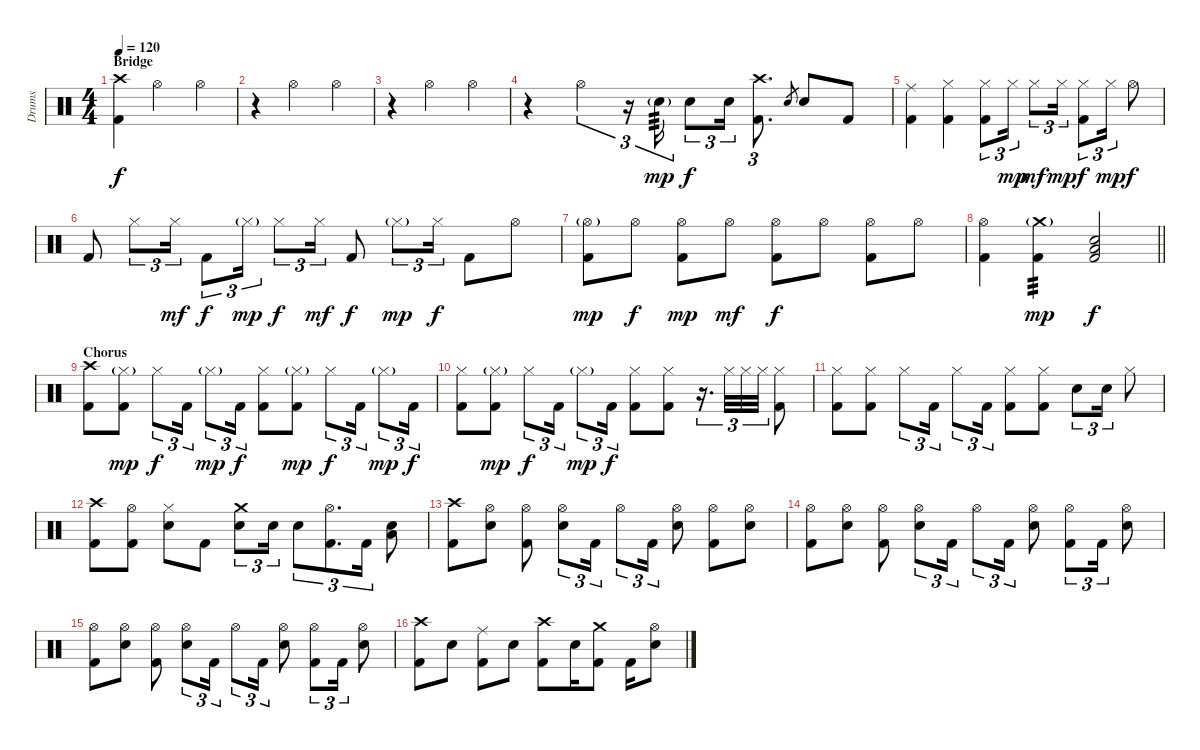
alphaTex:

\track ("Drums" "Drums") {instrument percussion}
\staff {score}
\articulation defaults
\ts (4 4)
\section ("" "Bridge")
\tempo 120
\clef neutral
\ks c
("Crash high (hit)" "Kick (hit) 2").4{dy f} "Hi-Hat (open)".2 "Hi-Hat (open)".4 |
r.4 "Hi-Hat (open)".2 "Hi-Hat (open)".4 |
r.4 "Hi-Hat (open)".2 "Hi-Hat (open)".4 |
r.4 "Hi-Hat (open)".4{tu (3 2)} r.16{tu (3 2)} "Electric Snare (hit)"{g}.16{tu (3 2) tp 3 dy mp} "Electric Snare (hit)".8{tu (3 2) dy f} "Electric Snare (hit)".16{tu (3 2)} ("Crash high (hit)" "Kick (hit) 2").8{d tu (3 2)} "Electric Snare (hit)".8{gr} "Electric Snare (hit)".8 "Kick (hit) 2".8 |
("Ride (middle)" "Kick (hit) 2").4 ("Hi-Hat (closed)" "Kick (hit) 2").4 ("Hi-Hat (closed)" "Kick (hit) 2").8{tu (3 2)} "Hi-Hat (closed)".16{tu (3 2) dy mp} "Hi-Hat (closed)".8{tu (3 2) dy mf} "Hi-Hat (closed)".16{tu (3 2) dy mp} ("Hi-Hat (closed)" "Kick (hit) 2").8{tu (3 2) dy f} "Hi-Hat (closed)".16{tu (3 2) dy mp} "Hi-Hat (open)".8{dy f} |
"Kick (hit) 2".8 "Hi-Hat (closed)".8{tu (3 2)} "Hi-Hat (closed)".16{tu (3 2) dy mf} "Kick (hit) 2".8{tu (3 2) dy f} "Hi-Hat (closed)"{g}.16{tu (3 2) dy mp} "Hi-Hat (closed)".8{tu (3 2) dy f} "Hi-Hat (closed)".16{tu (3 2) dy mf} "Kick (hit) 2".8{dy f} "Hi-Hat (closed)"{g}.8{tu (3 2) dy mp} "Hi-Hat (closed)".16{tu (3 2) dy f} "Kick (hit) 2".8 "Hi-Hat (open)".8 |
("Hi-Hat (open)"{g} "Kick (hit) 2").8{dy mp} "Hi-Hat (open)".8{dy f} ("Hi-Hat (open)" "Kick (hit) 2").8{dy mp} "Hi-Hat (open)".8{dy mf} ("Hi-Hat (open)" "Kick (hit) 2").8{dy f} "Hi-Hat (open)".8 ("Hi-Hat (open)" "Kick (hit) 2").8 "Hi-Hat (open)".8 |
\barLineRight lightlight
("Hi-Hat (open)" "Kick (hit) 2").4 ("Crash medium (hit)"{g} "Kick (hit) 2").4{tp 3 dy mp} ("Electric Snare (hit)" "Low Floor Tom (hit)" "Kick (hit) 2").2{dy f} |
\section ("" "Chorus")
("Crash high (hit)" "Kick (hit) 2").8 ("Hi-Hat (closed)"{g} "Kick (hit) 2").8{dy mp} "Hi-Hat (closed)".8{tu (3 2) dy f} "Kick (hit) 2".16{tu (3 2)} "Hi-Hat (closed)"{g}.8{tu (3 2) dy mp} "Kick (hit) 2".16{tu (3 2) dy f} ("Hi-Hat (closed)" "Kick (hit) 2").8 ("Hi-Hat (closed)"{g} "Kick (hit) 2").8{dy mp} "Hi-Hat (closed)".8{tu (3 2) dy f} "Kick (hit) 2".16{tu (3 2)} "Hi-Hat (closed)"{g}.8{tu (3 2) dy mp} "Kick (hit) 2".16{tu (3 2) dy f} |
("Hi-Hat (closed)" "Kick (hit) 2").8 ("Hi-Hat (closed)"{g} "Kick (hit) 2").8{dy mp} "Hi-Hat (closed)".8{tu (3 2) dy f} "Kick (hit) 2".16{tu (3 2)} "Hi-Hat (closed)"{g}.8{tu (3 2) dy mp} "Kick (hit) 2".16{tu (3 2) dy f} ("Hi-Hat (closed)" "Kick (hit) 2").8 ("Hi-Hat (closed)" "Kick (hit) 2").8 r.16{d tu (3 2)} "Hi-Hat (closed)".32{tu (3 2)} "Hi-Hat (closed)".32{tu (3 2)} "Hi-Hat (closed)".32{tu (3 2)} ("Hi-Hat (closed)" "Kick (hit) 2").8 |
("Hi-Hat (closed)" "Kick (hit) 2").8 ("Hi-Hat (closed)" "Kick (hit) 2").8 "Hi-Hat (closed)".8{tu (3 2)} "Kick (hit) 2".16{tu (3 2)} "Hi-Hat (closed)".8{tu (3 2)} "Kick (hit) 2".16{tu (3 2)} ("Hi-Hat (closed)" "Kick (hit) 2").8 ("Hi-Hat (closed)" "Kick (hit) 2").8 "Electric Snare (hit)".8{tu (3 2)} "Electric Snare (hit)".16{tu (3 2)} "Hi-Hat (closed)".8 |
("Crash high (hit)" "Kick (hit) 2").8 ("Hi-Hat (open)" "Kick (hit) 2").8 ("Hi-Hat (closed)" "Electric Snare (hit)").8 "Kick (hit) 2".8 ("Crash medium (hit)" "Electric Snare (hit)").8{tu (3 2)} "Electric Snare (hit)".16{tu (3 2)} "Electric Snare (hit)".8{tu (3 2)} ("Hi-Hat (open)" "Kick (hit) 2").8{d tu (3 2)} "Kick (hit) 2".16{tu (3 2)} ("Electric Snare (hit)" "Low Floor Tom (hit)").8 |
("Crash high (hit)" "Kick (hit) 2").8 ("Hi-Hat (open)" "Electric Snare (hit)").8 ("Hi-Hat (open)" "Kick (hit) 2").8 ("Hi-Hat (open)" "Electric Snare (hit)").8{tu (3 2)} "Kick (hit) 2".16{tu (3 2)} "Hi-Hat (open)".8{tu (3 2)} "Kick (hit) 2".16{tu (3 2)} ("Hi-Hat (open)" "Electric Snare (hit)").8 ("Hi-Hat (open)" "Kick (hit) 2").8 ("Hi-Hat (open)" "Electric Snare (hit)").8 |
("Hi-Hat (open)" "Kick (hit) 2").8 ("Hi-Hat (open)" "Electric Snare (hit)").8 ("Hi-Hat (open)" "Kick (hit) 2").8 ("Hi-Hat (open)" "Electric Snare (hit)").8{tu (3 2)} "Kick (hit) 2".16{tu (3 2)} "Hi-Hat (open)".8{tu (3 2)} "Kick (hit) 2".16{tu (3 2)} ("Hi-Hat (open)" "Electric Snare (hit)").8 ("Hi-Hat (open)" "Kick (hit) 2").8{tu (3 2)} "Kick (hit) 2".16{tu (3 2)} ("Hi-Hat (open)" "Electric Snare (hit)").8 |
("Hi-Hat (open)" "Kick (hit) 2").8 ("Hi-Hat (open)" "Electric Snare (hit)").8 ("Hi-Hat (open)" "Kick (hit) 2").8 ("Hi-Hat (open)" "Electric Snare (hit)").8{tu (3 2)} "Kick (hit) 2".16{tu (3 2)} "Hi-Hat (open)".8{tu (3 2)} "Kick (hit) 2".16{tu (3 2)} ("Hi-Hat (open)" "Electric Snare (hit)").8 ("Hi-Hat (open)" "Kick (hit) 2").8{tu (3 2)} "Kick (hit) 2".16{tu (3 2)} ("Hi-Hat (open)" "Electric Snare (hit)").8 |
("Crash high (hit)" "Kick (hit) 2").8 "Electric Snare (hit)".8 ("Ride (middle)" "Kick (hit) 2").8 "Electric Snare (hit)".8 ("Crash high (hit)" "Kick (hit) 2").8 "Electric Snare (hit)".16 ("Crash medium (hit)" "Kick (hit) 2").8 "Kick (hit) 2".16 ("Hi-Hat (open)" "Electric Snare (hit)").8
